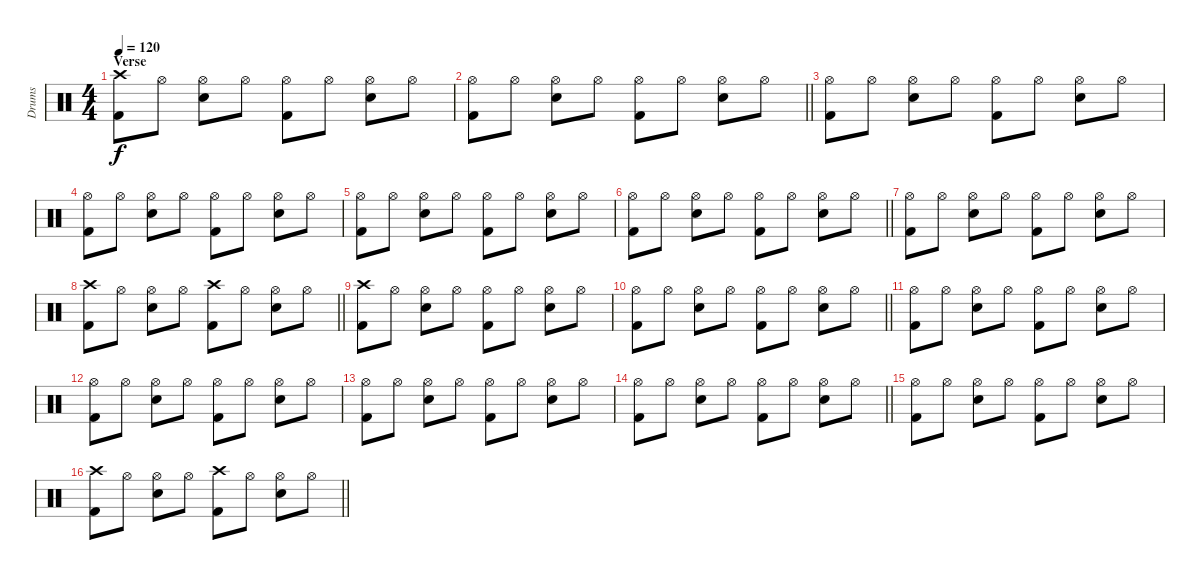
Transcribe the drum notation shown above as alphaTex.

\track ("Drums" "Drums") {instrument percussion}
\staff {score}
\articulation defaults
\ts (4 4)
\section ("" "Verse")
\tempo 120
\clef neutral
\ks c
("Crash high (hit)" "Kick (hit) 2").8{dy f} "Hi-Hat (open)".8 ("Hi-Hat (open)" "Electric Snare (hit)").8 "Hi-Hat (open)".8 ("Hi-Hat (open)" "Kick (hit) 2").8 "Hi-Hat (open)".8 ("Hi-Hat (open)" "Electric Snare (hit)").8 "Hi-Hat (open)".8 |
\barLineRight lightlight
("Hi-Hat (open)" "Kick (hit) 2").8 "Hi-Hat (open)".8 ("Hi-Hat (open)" "Electric Snare (hit)").8 "Hi-Hat (open)".8 ("Hi-Hat (open)" "Kick (hit) 2").8 "Hi-Hat (open)".8 ("Hi-Hat (open)" "Electric Snare (hit)").8 "Hi-Hat (open)".8 |
("Hi-Hat (open)" "Kick (hit) 2").8 "Hi-Hat (open)".8 ("Hi-Hat (open)" "Electric Snare (hit)").8 "Hi-Hat (open)".8 ("Hi-Hat (open)" "Kick (hit) 2").8 "Hi-Hat (open)".8 ("Hi-Hat (open)" "Electric Snare (hit)").8 "Hi-Hat (open)".8 |
("Hi-Hat (open)" "Kick (hit) 2").8 "Hi-Hat (open)".8 ("Hi-Hat (open)" "Electric Snare (hit)").8 "Hi-Hat (open)".8 ("Hi-Hat (open)" "Kick (hit) 2").8 "Hi-Hat (open)".8 ("Hi-Hat (open)" "Electric Snare (hit)").8 "Hi-Hat (open)".8 |
("Hi-Hat (open)" "Kick (hit) 2").8 "Hi-Hat (open)".8 ("Hi-Hat (open)" "Electric Snare (hit)").8 "Hi-Hat (open)".8 ("Hi-Hat (open)" "Kick (hit) 2").8 "Hi-Hat (open)".8 ("Hi-Hat (open)" "Electric Snare (hit)").8 "Hi-Hat (open)".8 |
\barLineRight lightlight
("Hi-Hat (open)" "Kick (hit) 2").8 "Hi-Hat (open)".8 ("Hi-Hat (open)" "Electric Snare (hit)").8 "Hi-Hat (open)".8 ("Hi-Hat (open)" "Kick (hit) 2").8 "Hi-Hat (open)".8 ("Hi-Hat (open)" "Electric Snare (hit)").8 "Hi-Hat (open)".8 |
("Hi-Hat (open)" "Kick (hit) 2").8 "Hi-Hat (open)".8 ("Hi-Hat (open)" "Electric Snare (hit)").8 "Hi-Hat (open)".8 ("Hi-Hat (open)" "Kick (hit) 2").8 "Hi-Hat (open)".8 ("Hi-Hat (open)" "Electric Snare (hit)").8 "Hi-Hat (open)".8 |
\barLineRight lightlight
("Crash high (hit)" "Kick (hit) 2").8 "Hi-Hat (open)".8 ("Hi-Hat (open)" "Electric Snare (hit)").8 "Hi-Hat (open)".8 ("Crash high (hit)" "Kick (hit) 2").8 "Hi-Hat (open)".8 ("Hi-Hat (open)" "Electric Snare (hit)").8 "Hi-Hat (open)".8 |
("Crash high (hit)" "Kick (hit) 2").8 "Hi-Hat (open)".8 ("Hi-Hat (open)" "Electric Snare (hit)").8 "Hi-Hat (open)".8 ("Hi-Hat (open)" "Kick (hit) 2").8 "Hi-Hat (open)".8 ("Hi-Hat (open)" "Electric Snare (hit)").8 "Hi-Hat (open)".8 |
\barLineRight lightlight
("Hi-Hat (open)" "Kick (hit) 2").8 "Hi-Hat (open)".8 ("Hi-Hat (open)" "Electric Snare (hit)").8 "Hi-Hat (open)".8 ("Hi-Hat (open)" "Kick (hit) 2").8 "Hi-Hat (open)".8 ("Hi-Hat (open)" "Electric Snare (hit)").8 "Hi-Hat (open)".8 |
("Hi-Hat (open)" "Kick (hit) 2").8 "Hi-Hat (open)".8 ("Hi-Hat (open)" "Electric Snare (hit)").8 "Hi-Hat (open)".8 ("Hi-Hat (open)" "Kick (hit) 2").8 "Hi-Hat (open)".8 ("Hi-Hat (open)" "Electric Snare (hit)").8 "Hi-Hat (open)".8 |
("Hi-Hat (open)" "Kick (hit) 2").8 "Hi-Hat (open)".8 ("Hi-Hat (open)" "Electric Snare (hit)").8 "Hi-Hat (open)".8 ("Hi-Hat (open)" "Kick (hit) 2").8 "Hi-Hat (open)".8 ("Hi-Hat (open)" "Electric Snare (hit)").8 "Hi-Hat (open)".8 |
("Hi-Hat (open)" "Kick (hit) 2").8 "Hi-Hat (open)".8 ("Hi-Hat (open)" "Electric Snare (hit)").8 "Hi-Hat (open)".8 ("Hi-Hat (open)" "Kick (hit) 2").8 "Hi-Hat (open)".8 ("Hi-Hat (open)" "Electric Snare (hit)").8 "Hi-Hat (open)".8 |
\barLineRight lightlight
("Hi-Hat (open)" "Kick (hit) 2").8 "Hi-Hat (open)".8 ("Hi-Hat (open)" "Electric Snare (hit)").8 "Hi-Hat (open)".8 ("Hi-Hat (open)" "Kick (hit) 2").8 "Hi-Hat (open)".8 ("Hi-Hat (open)" "Electric Snare (hit)").8 "Hi-Hat (open)".8 |
("Hi-Hat (open)" "Kick (hit) 2").8 "Hi-Hat (open)".8 ("Hi-Hat (open)" "Electric Snare (hit)").8 "Hi-Hat (open)".8 ("Hi-Hat (open)" "Kick (hit) 2").8 "Hi-Hat (open)".8 ("Hi-Hat (open)" "Electric Snare (hit)").8 "Hi-Hat (open)".8 |
\barLineRight lightlight
("Crash high (hit)" "Kick (hit) 2").8 "Hi-Hat (open)".8 ("Hi-Hat (open)" "Electric Snare (hit)").8 "Hi-Hat (open)".8 ("Crash high (hit)" "Kick (hit) 2").8 "Hi-Hat (open)".8 ("Hi-Hat (open)" "Electric Snare (hit)").8 "Hi-Hat (open)".8
